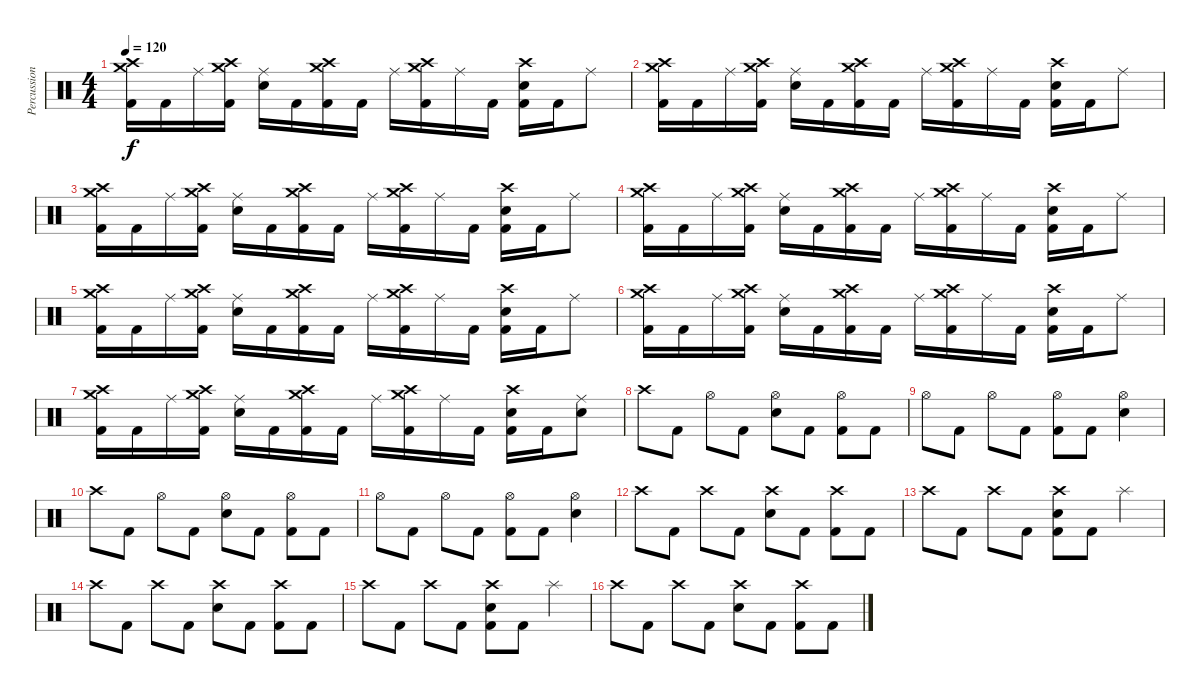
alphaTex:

\track ("Percussions" "Percussion") {instrument percussion}
\staff {score}
\articulation defaults
\ts (4 4)
\tempo 120
\clef neutral
\ks c
("Crash medium (hit)" "Crash high (hit)" "Kick (hit) 2").16{dy f} "Kick (hit) 2".16 "Ride (middle)".16 ("Crash medium (hit)" "Crash high (hit)" "Kick (hit) 2").16 ("Electric Snare (hit)" "Ride (middle)").16 "Kick (hit) 2".16 ("Crash medium (hit)" "Crash high (hit)" "Kick (hit) 2").16 "Kick (hit) 2".16 "Ride (middle)".16 ("Crash medium (hit)" "Crash high (hit)" "Kick (hit) 2").16 "Ride (middle)".16 "Kick (hit) 2".16 ("Electric Snare (hit)" "Crash high (hit)" "Kick (hit) 2").16 "Kick (hit) 2".16 "Ride (middle)".8 |
("Crash medium (hit)" "Crash high (hit)" "Kick (hit) 2").16 "Kick (hit) 2".16 "Ride (middle)".16 ("Crash medium (hit)" "Crash high (hit)" "Kick (hit) 2").16 ("Electric Snare (hit)" "Ride (middle)").16 "Kick (hit) 2".16 ("Crash medium (hit)" "Crash high (hit)" "Kick (hit) 2").16 "Kick (hit) 2".16 "Ride (middle)".16 ("Crash medium (hit)" "Crash high (hit)" "Kick (hit) 2").16 "Ride (middle)".16 "Kick (hit) 2".16 ("Electric Snare (hit)" "Crash high (hit)" "Kick (hit) 2").16 "Kick (hit) 2".16 "Ride (middle)".8 |
("Crash medium (hit)" "Crash high (hit)" "Kick (hit) 2").16 "Kick (hit) 2".16 "Ride (middle)".16 ("Crash medium (hit)" "Crash high (hit)" "Kick (hit) 2").16 ("Electric Snare (hit)" "Ride (middle)").16 "Kick (hit) 2".16 ("Crash medium (hit)" "Crash high (hit)" "Kick (hit) 2").16 "Kick (hit) 2".16 "Ride (middle)".16 ("Crash medium (hit)" "Crash high (hit)" "Kick (hit) 2").16 "Ride (middle)".16 "Kick (hit) 2".16 ("Electric Snare (hit)" "Crash high (hit)" "Kick (hit) 2").16 "Kick (hit) 2".16 "Ride (middle)".8 |
("Crash medium (hit)" "Crash high (hit)" "Kick (hit) 2").16 "Kick (hit) 2".16 "Ride (middle)".16 ("Crash medium (hit)" "Crash high (hit)" "Kick (hit) 2").16 ("Electric Snare (hit)" "Ride (middle)").16 "Kick (hit) 2".16 ("Crash medium (hit)" "Crash high (hit)" "Kick (hit) 2").16 "Kick (hit) 2".16 "Ride (middle)".16 ("Crash medium (hit)" "Crash high (hit)" "Kick (hit) 2").16 "Ride (middle)".16 "Kick (hit) 2".16 ("Electric Snare (hit)" "Crash high (hit)" "Kick (hit) 2").16 "Kick (hit) 2".16 "Ride (middle)".8 |
("Crash medium (hit)" "Crash high (hit)" "Kick (hit) 2").16 "Kick (hit) 2".16 "Ride (middle)".16 ("Crash medium (hit)" "Crash high (hit)" "Kick (hit) 2").16 ("Electric Snare (hit)" "Ride (middle)").16 "Kick (hit) 2".16 ("Crash medium (hit)" "Crash high (hit)" "Kick (hit) 2").16 "Kick (hit) 2".16 "Ride (middle)".16 ("Crash medium (hit)" "Crash high (hit)" "Kick (hit) 2").16 "Ride (middle)".16 "Kick (hit) 2".16 ("Electric Snare (hit)" "Crash high (hit)" "Kick (hit) 2").16 "Kick (hit) 2".16 "Ride (middle)".8 |
("Crash medium (hit)" "Crash high (hit)" "Kick (hit) 2").16 "Kick (hit) 2".16 "Ride (middle)".16 ("Crash medium (hit)" "Crash high (hit)" "Kick (hit) 2").16 ("Electric Snare (hit)" "Ride (middle)").16 "Kick (hit) 2".16 ("Crash medium (hit)" "Crash high (hit)" "Kick (hit) 2").16 "Kick (hit) 2".16 "Ride (middle)".16 ("Crash medium (hit)" "Crash high (hit)" "Kick (hit) 2").16 "Ride (middle)".16 "Kick (hit) 2".16 ("Electric Snare (hit)" "Crash high (hit)" "Kick (hit) 2").16 "Kick (hit) 2".16 "Ride (middle)".8 |
("Crash medium (hit)" "Crash high (hit)" "Kick (hit) 2").16 "Kick (hit) 2".16 "Ride (middle)".16 ("Crash medium (hit)" "Crash high (hit)" "Kick (hit) 2").16 ("Electric Snare (hit)" "Ride (middle)").16 "Kick (hit) 2".16 ("Crash medium (hit)" "Crash high (hit)" "Kick (hit) 2").16 "Kick (hit) 2".16 "Ride (middle)".16 ("Crash medium (hit)" "Crash high (hit)" "Kick (hit) 2").16 "Ride (middle)".16 "Kick (hit) 2".16 ("Electric Snare (hit)" "Crash high (hit)" "Kick (hit) 2").16 "Kick (hit) 2".16 ("Electric Snare (hit)" "Ride (middle)").8 |
"Crash high (hit)".8 "Kick (hit) 2".8 "Hi-Hat (open)".8 "Kick (hit) 2".8 ("Electric Snare (hit)" "Hi-Hat (open)").8 "Kick (hit) 2".8 ("Hi-Hat (open)" "Kick (hit) 2").8 "Kick (hit) 2".8 |
"Hi-Hat (open)".8 "Kick (hit) 2".8 "Hi-Hat (open)".8 "Kick (hit) 2".8 ("Hi-Hat (open)" "Kick (hit) 2").8 "Kick (hit) 2".8 ("Electric Snare (hit)" "Hi-Hat (open)").4 |
"Crash high (hit)".8 "Kick (hit) 2".8 "Hi-Hat (open)".8 "Kick (hit) 2".8 ("Electric Snare (hit)" "Hi-Hat (open)").8 "Kick (hit) 2".8 ("Hi-Hat (open)" "Kick (hit) 2").8 "Kick (hit) 2".8 |
"Hi-Hat (open)".8 "Kick (hit) 2".8 "Hi-Hat (open)".8 "Kick (hit) 2".8 ("Hi-Hat (open)" "Kick (hit) 2").8 "Kick (hit) 2".8 ("Electric Snare (hit)" "Hi-Hat (open)").4 |
"Crash high (hit)".8 "Kick (hit) 2".8 "Crash high (hit)".8 "Kick (hit) 2".8 ("Electric Snare (hit)" "Crash high (hit)").8 "Kick (hit) 2".8 ("Crash high (hit)" "Kick (hit) 2").8 "Kick (hit) 2".8 |
"Crash high (hit)".8 "Kick (hit) 2".8 "Crash high (hit)".8 "Kick (hit) 2".8 ("Electric Snare (hit)" "Crash high (hit)" "Kick (hit) 2").8 "Kick (hit) 2".8 "Splash (hit)".4 |
"Crash high (hit)".8 "Kick (hit) 2".8 "Crash high (hit)".8 "Kick (hit) 2".8 ("Electric Snare (hit)" "Crash high (hit)").8 "Kick (hit) 2".8 ("Crash high (hit)" "Kick (hit) 2").8 "Kick (hit) 2".8 |
"Crash high (hit)".8 "Kick (hit) 2".8 "Crash high (hit)".8 "Kick (hit) 2".8 ("Electric Snare (hit)" "Crash high (hit)" "Kick (hit) 2").8 "Kick (hit) 2".8 "Splash (hit)".4 |
"Crash high (hit)".8 "Kick (hit) 2".8 "Crash high (hit)".8 "Kick (hit) 2".8 ("Electric Snare (hit)" "Crash high (hit)").8 "Kick (hit) 2".8 ("Crash high (hit)" "Kick (hit) 2").8 "Kick (hit) 2".8
